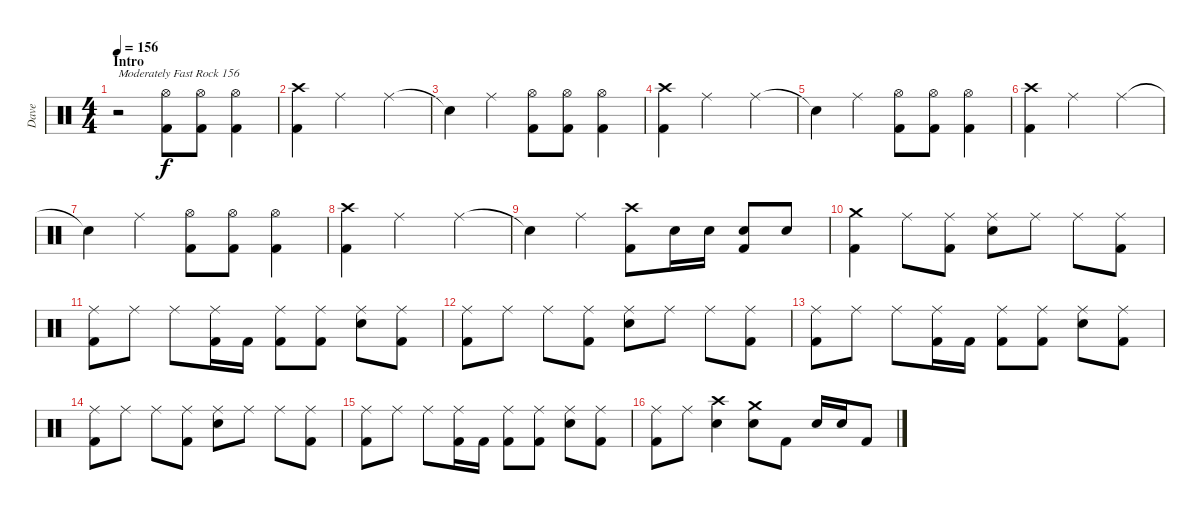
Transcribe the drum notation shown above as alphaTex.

\track ("Dave" "Dave") {instrument percussion}
\staff {score}
\articulation defaults
\ts (4 4)
\section ("" "Intro")
\tempo 156
\clef neutral
\ks c
r.2{txt "Moderately Fast Rock 156" dy f} ("Kick (hit) 2" "Hi-Hat (open)").8 ("Hi-Hat (open)" "Kick (hit) 2").8 ("Hi-Hat (open)" "Kick (hit) 2").4 |
("Crash high (hit)" "Kick (hit) 2").4 "Ride (middle)".2 "Ride (middle)".4 |
"Snare (hit)"{t}.4 "Ride (middle)".4 ("Hi-Hat (open)" "Kick (hit) 2").8 ("Hi-Hat (open)" "Kick (hit) 2").8 ("Hi-Hat (open)" "Kick (hit) 2").4 |
("Crash high (hit)" "Kick (hit) 2").4 "Ride (middle)".2 "Ride (middle)".4 |
"Snare (hit)"{t}.4 "Ride (middle)".4 ("Hi-Hat (open)" "Kick (hit) 2").8 ("Hi-Hat (open)" "Kick (hit) 2").8 ("Hi-Hat (open)" "Kick (hit) 2").4 |
("Crash high (hit)" "Kick (hit) 2").4 "Ride (middle)".2 "Ride (middle)".4 |
"Snare (hit)"{t}.4 "Ride (middle)".4 ("Kick (hit) 2" "Hi-Hat (open)").8 ("Hi-Hat (open)" "Kick (hit) 2").8 ("Hi-Hat (open)" "Kick (hit) 2").4 |
("Crash high (hit)" "Kick (hit) 2").4 "Ride (middle)".2 "Ride (middle)".4 |
"Snare (hit)"{t}.4 "Ride (middle)".4 ("Crash high (hit)" "Kick (hit) 2").8 "Electric Snare (hit)".16 "Electric Snare (hit)".16 ("Kick (hit) 2" "Electric Snare (hit)").8 "Electric Snare (hit)".8 |
("Kick (hit) 2" "Crash medium (hit)").4 "Ride (middle)".8 ("Ride (middle)" "Kick (hit) 2").8 ("Ride (middle)" "Electric Snare (hit)").8 "Ride (middle)".8 "Ride (middle)".8 ("Ride (middle)" "Kick (hit) 2").8 |
("Ride (middle)" "Kick (hit) 2").8 "Ride (middle)".8 "Ride (middle)".8 ("Kick (hit) 2" "Ride (middle)").16 "Kick (hit) 2".16 ("Ride (middle)" "Kick (hit) 2").8 ("Ride (middle)" "Kick (hit) 2").8 ("Ride (middle)" "Electric Snare (hit)").8 ("Ride (middle)" "Kick (hit) 2").8 |
("Kick (hit) 2" "Ride (middle)").8 "Ride (middle)".8 "Ride (middle)".8 ("Ride (middle)" "Kick (hit) 2").8 ("Ride (middle)" "Electric Snare (hit)").8 "Ride (middle)".8 "Ride (middle)".8 ("Ride (middle)" "Kick (hit) 2").8 |
("Ride (middle)" "Kick (hit) 2").8 "Ride (middle)".8 "Ride (middle)".8 ("Kick (hit) 2" "Ride (middle)").16 "Kick (hit) 2".16 ("Ride (middle)" "Kick (hit) 2").8 ("Ride (middle)" "Kick (hit) 2").8 ("Ride (middle)" "Electric Snare (hit)").8 ("Ride (middle)" "Kick (hit) 2").8 |
("Ride (middle)" "Kick (hit) 2").8 "Ride (middle)".8 "Ride (middle)".8 ("Ride (middle)" "Kick (hit) 2").8 ("Ride (middle)" "Electric Snare (hit)").8 "Ride (middle)".8 "Ride (middle)".8 ("Ride (middle)" "Kick (hit) 2").8 |
("Ride (middle)" "Kick (hit) 2").8 "Ride (middle)".8 "Ride (middle)".8 ("Kick (hit) 2" "Ride (middle)").16 "Kick (hit) 2".16 ("Ride (middle)" "Kick (hit) 2").8 ("Ride (middle)" "Kick (hit) 2").8 ("Ride (middle)" "Electric Snare (hit)").8 ("Ride (middle)" "Kick (hit) 2").8 |
("Kick (hit) 2" "Ride (middle)").8 "Ride (middle)".8 ("Crash high (hit)" "Electric Snare (hit)").4 ("Crash medium (hit)" "Electric Snare (hit)").8 "Kick (hit) 2".8 "Electric Snare (hit)".16 "Electric Snare (hit)".16 "Kick (hit) 2".8
